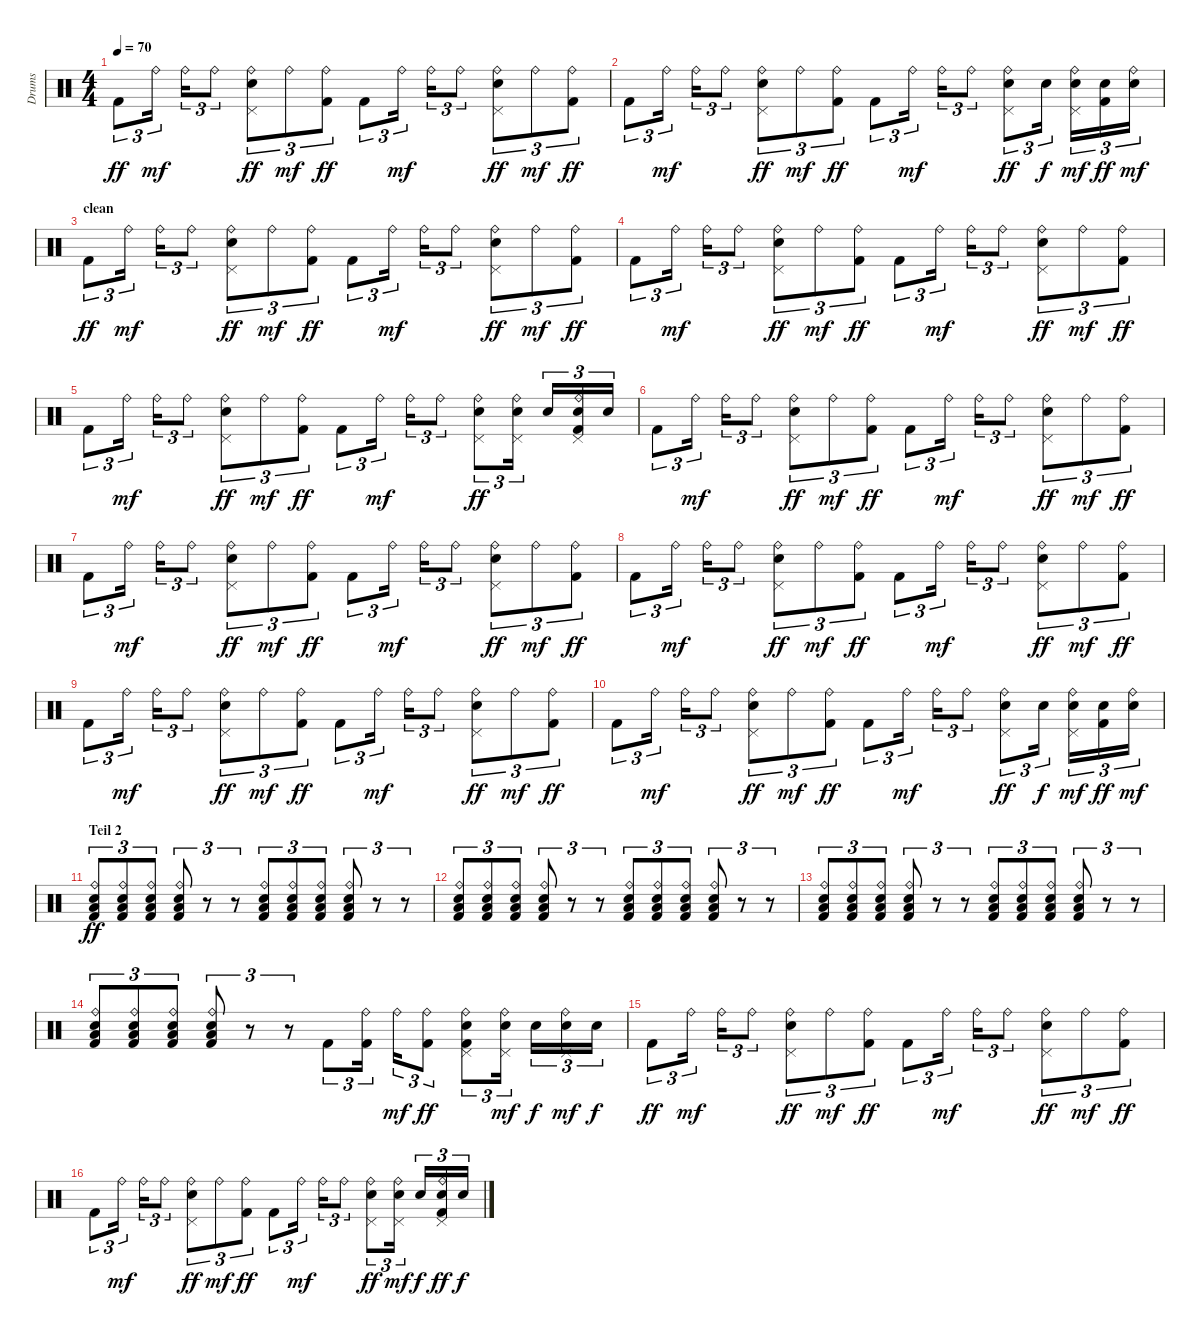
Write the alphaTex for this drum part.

\track ("Drums" "Drums") {instrument percussion}
\staff {score}
\articulation defaults
\ts (4 4)
\tempo 70
\clef neutral
\ks c "Kick (hit) 2".8{tu (3 2) dy ff} "Ride (bell)".16{tu (3 2) dy mf} "Ride (bell)".16{tu (3 2)} "Ride (bell)".8{tu (3 2)}
("Ride (bell)" "Pedal Hi-Hat (hit)" "Electric Snare (hit)").8{tu (3 2) dy ff} "Ride (bell)".8{tu (3 2) dy mf} ("Ride (bell)" "Kick (hit) 2").8{tu (3 2) dy ff} "Kick (hit) 2".8{tu (3 2)} "Ride (bell)".16{tu (3 2) dy mf} "Ride (bell)".16{tu (3 2)} "Ride (bell)".8{tu (3 2)} ("Ride (bell)" "Pedal Hi-Hat (hit)" "Electric Snare (hit)").8{tu (3 2) dy ff} "Ride (bell)".8{tu (3 2) dy mf} ("Ride (bell)" "Kick (hit) 2").8{tu (3 2) dy ff} |
"Kick (hit) 2".8{tu (3 2)} "Ride (bell)".16{tu (3 2) dy mf} "Ride (bell)".16{tu (3 2)} "Ride (bell)".8{tu (3 2)} ("Ride (bell)" "Pedal Hi-Hat (hit)" "Electric Snare (hit)").8{tu (3 2) dy ff} "Ride (bell)".8{tu (3 2) dy mf} ("Ride (bell)" "Kick (hit) 2").8{tu (3 2) dy ff} "Kick (hit) 2".8{tu (3 2)} "Ride (bell)".16{tu (3 2) dy mf} "Ride (bell)".16{tu (3 2)} "Ride (bell)".8{tu (3 2)} ("Ride (bell)" "Pedal Hi-Hat (hit)" "Electric Snare (hit)").8{tu (3 2) dy ff} "Electric Snare (hit)".16{tu (3 2) dy f} ("Ride (bell)" "Pedal Hi-Hat (hit)" "Electric Snare (hit)").16{tu (3 2) dy mf} ("Electric Snare (hit)" "Kick (hit) 2").16{tu (3 2) dy ff} ("Ride (bell)" "Electric Snare (hit)").16{tu (3 2) dy mf} |
\section ("" "clean")
"Kick (hit) 2".8{tu (3 2) dy ff} "Ride (bell)".16{tu (3 2) dy mf} "Ride (bell)".16{tu (3 2)} "Ride (bell)".8{tu (3 2)} ("Ride (bell)" "Pedal Hi-Hat (hit)" "Electric Snare (hit)").8{tu (3 2) dy ff} "Ride (bell)".8{tu (3 2) dy mf} ("Ride (bell)" "Kick (hit) 2").8{tu (3 2) dy ff} "Kick (hit) 2".8{tu (3 2)} "Ride (bell)".16{tu (3 2) dy mf} "Ride (bell)".16{tu (3 2)} "Ride (bell)".8{tu (3 2)} ("Ride (bell)" "Pedal Hi-Hat (hit)" "Electric Snare (hit)").8{tu (3 2) dy ff} "Ride (bell)".8{tu (3 2) dy mf} ("Ride (bell)" "Kick (hit) 2").8{tu (3 2) dy ff} |
"Kick (hit) 2".8{tu (3 2)} "Ride (bell)".16{tu (3 2) dy mf} "Ride (bell)".16{tu (3 2)} "Ride (bell)".8{tu (3 2)} ("Ride (bell)" "Pedal Hi-Hat (hit)" "Electric Snare (hit)").8{tu (3 2) dy ff} "Ride (bell)".8{tu (3 2) dy mf} ("Ride (bell)" "Kick (hit) 2").8{tu (3 2) dy ff} "Kick (hit) 2".8{tu (3 2)} "Ride (bell)".16{tu (3 2) dy mf} "Ride (bell)".16{tu (3 2)} "Ride (bell)".8{tu (3 2)} ("Ride (bell)" "Pedal Hi-Hat (hit)" "Electric Snare (hit)").8{tu (3 2) dy ff} "Ride (bell)".8{tu (3 2) dy mf} ("Ride (bell)" "Kick (hit) 2").8{tu (3 2) dy ff} |
"Kick (hit) 2".8{tu (3 2)} "Ride (bell)".16{tu (3 2) dy mf} "Ride (bell)".16{tu (3 2)} "Ride (bell)".8{tu (3 2)} ("Ride (bell)" "Pedal Hi-Hat (hit)" "Electric Snare (hit)").8{tu (3 2) dy ff} "Ride (bell)".8{tu (3 2) dy mf} ("Ride (bell)" "Kick (hit) 2").8{tu (3 2) dy ff} "Kick (hit) 2".8{tu (3 2)} "Ride (bell)".16{tu (3 2) dy mf} "Ride (bell)".16{tu (3 2)} "Ride (bell)".8{tu (3 2)} ("Ride (bell)" "Pedal Hi-Hat (hit)" "Electric Snare (hit)").8{tu (3 2) dy ff} ("Ride (bell)" "Pedal Hi-Hat (hit)" "Electric Snare (hit)").16{tu (3 2)} "Electric Snare (hit)".16{tu (3 2)} ("Ride (bell)" "Pedal Hi-Hat (hit)" "Electric Snare (hit)" "Kick (hit) 2").16{tu (3 2)} "Electric Snare (hit)".16{tu (3 2)} |
"Kick (hit) 2".8{tu (3 2)} "Ride (bell)".16{tu (3 2) dy mf} "Ride (bell)".16{tu (3 2)} "Ride (bell)".8{tu (3 2)} ("Ride (bell)" "Pedal Hi-Hat (hit)" "Electric Snare (hit)").8{tu (3 2) dy ff} "Ride (bell)".8{tu (3 2) dy mf} ("Ride (bell)" "Kick (hit) 2").8{tu (3 2) dy ff} "Kick (hit) 2".8{tu (3 2)} "Ride (bell)".16{tu (3 2) dy mf} "Ride (bell)".16{tu (3 2)} "Ride (bell)".8{tu (3 2)} ("Ride (bell)" "Pedal Hi-Hat (hit)" "Electric Snare (hit)").8{tu (3 2) dy ff} "Ride (bell)".8{tu (3 2) dy mf} ("Ride (bell)" "Kick (hit) 2").8{tu (3 2) dy ff} |
"Kick (hit) 2".8{tu (3 2)} "Ride (bell)".16{tu (3 2) dy mf} "Ride (bell)".16{tu (3 2)} "Ride (bell)".8{tu (3 2)} ("Ride (bell)" "Pedal Hi-Hat (hit)" "Electric Snare (hit)").8{tu (3 2) dy ff} "Ride (bell)".8{tu (3 2) dy mf} ("Ride (bell)" "Kick (hit) 2").8{tu (3 2) dy ff} "Kick (hit) 2".8{tu (3 2)} "Ride (bell)".16{tu (3 2) dy mf} "Ride (bell)".16{tu (3 2)} "Ride (bell)".8{tu (3 2)} ("Ride (bell)" "Pedal Hi-Hat (hit)" "Electric Snare (hit)").8{tu (3 2) dy ff} "Ride (bell)".8{tu (3 2) dy mf} ("Ride (bell)" "Kick (hit) 2").8{tu (3 2) dy ff} |
"Kick (hit) 2".8{tu (3 2)} "Ride (bell)".16{tu (3 2) dy mf} "Ride (bell)".16{tu (3 2)} "Ride (bell)".8{tu (3 2)} ("Ride (bell)" "Pedal Hi-Hat (hit)" "Electric Snare (hit)").8{tu (3 2) dy ff} "Ride (bell)".8{tu (3 2) dy mf} ("Ride (bell)" "Kick (hit) 2").8{tu (3 2) dy ff} "Kick (hit) 2".8{tu (3 2)} "Ride (bell)".16{tu (3 2) dy mf} "Ride (bell)".16{tu (3 2)} "Ride (bell)".8{tu (3 2)} ("Ride (bell)" "Pedal Hi-Hat (hit)" "Electric Snare (hit)").8{tu (3 2) dy ff} "Ride (bell)".8{tu (3 2) dy mf} ("Ride (bell)" "Kick (hit) 2").8{tu (3 2) dy ff} |
"Kick (hit) 2".8{tu (3 2)} "Ride (bell)".16{tu (3 2) dy mf} "Ride (bell)".16{tu (3 2)} "Ride (bell)".8{tu (3 2)} ("Ride (bell)" "Pedal Hi-Hat (hit)" "Electric Snare (hit)").8{tu (3 2) dy ff} "Ride (bell)".8{tu (3 2) dy mf} ("Ride (bell)" "Kick (hit) 2").8{tu (3 2) dy ff} "Kick (hit) 2".8{tu (3 2)} "Ride (bell)".16{tu (3 2) dy mf} "Ride (bell)".16{tu (3 2)} "Ride (bell)".8{tu (3 2)} ("Ride (bell)" "Pedal Hi-Hat (hit)" "Electric Snare (hit)").8{tu (3 2) dy ff} "Ride (bell)".8{tu (3 2) dy mf} ("Ride (bell)" "Kick (hit) 2").8{tu (3 2) dy ff} |
"Kick (hit) 2".8{tu (3 2)} "Ride (bell)".16{tu (3 2) dy mf} "Ride (bell)".16{tu (3 2)} "Ride (bell)".8{tu (3 2)} ("Ride (bell)" "Pedal Hi-Hat (hit)" "Electric Snare (hit)").8{tu (3 2) dy ff} "Ride (bell)".8{tu (3 2) dy mf} ("Ride (bell)" "Kick (hit) 2").8{tu (3 2) dy ff} "Kick (hit) 2".8{tu (3 2)} "Ride (bell)".16{tu (3 2) dy mf} "Ride (bell)".16{tu (3 2)} "Ride (bell)".8{tu (3 2)} ("Ride (bell)" "Pedal Hi-Hat (hit)" "Electric Snare (hit)").8{tu (3 2) dy ff} "Electric Snare (hit)".16{tu (3 2) dy f} ("Ride (bell)" "Pedal Hi-Hat (hit)" "Electric Snare (hit)").16{tu (3 2) dy mf} ("Electric Snare (hit)" "Kick (hit) 2").16{tu (3 2) dy ff} ("Ride (bell)" "Electric Snare (hit)").16{tu (3 2) dy mf} |
\section ("" "Teil 2")
("Ride (bell)" "Electric Snare (hit)" "Low Floor Tom (hit)" "Kick (hit) 2").8{tu (3 2) dy ff} ("Ride (bell)" "Electric Snare (hit)" "Low Floor Tom (hit)" "Kick (hit) 2").8{tu (3 2)} ("Ride (bell)" "Electric Snare (hit)" "Low Floor Tom (hit)" "Kick (hit) 2").8{tu (3 2)} ("Ride (bell)" "Electric Snare (hit)" "Low Floor Tom (hit)" "Kick (hit) 2").8{tu (3 2)} r.8{tu (3 2)} r.8{tu (3 2)} ("Ride (bell)" "Electric Snare (hit)" "Low Floor Tom (hit)" "Kick (hit) 2").8{tu (3 2)} ("Ride (bell)" "Electric Snare (hit)" "Low Floor Tom (hit)" "Kick (hit) 2").8{tu (3 2)} ("Ride (bell)" "Electric Snare (hit)" "Low Floor Tom (hit)" "Kick (hit) 2").8{tu (3 2)} ("Ride (bell)" "Electric Snare (hit)" "Low Floor Tom (hit)" "Kick (hit) 2").8{tu (3 2)} r.8{tu (3 2)} r.8{tu (3 2)} |
("Ride (bell)" "Electric Snare (hit)" "Low Floor Tom (hit)" "Kick (hit) 2").8{tu (3 2)} ("Ride (bell)" "Electric Snare (hit)" "Low Floor Tom (hit)" "Kick (hit) 2").8{tu (3 2)} ("Ride (bell)" "Electric Snare (hit)" "Low Floor Tom (hit)" "Kick (hit) 2").8{tu (3 2)} ("Ride (bell)" "Electric Snare (hit)" "Low Floor Tom (hit)" "Kick (hit) 2").8{tu (3 2)} r.8{tu (3 2)} r.8{tu (3 2)} ("Ride (bell)" "Electric Snare (hit)" "Low Floor Tom (hit)" "Kick (hit) 2").8{tu (3 2)} ("Ride (bell)" "Electric Snare (hit)" "Low Floor Tom (hit)" "Kick (hit) 2").8{tu (3 2)} ("Ride (bell)" "Electric Snare (hit)" "Low Floor Tom (hit)" "Kick (hit) 2").8{tu (3 2)} ("Ride (bell)" "Electric Snare (hit)" "Low Floor Tom (hit)" "Kick (hit) 2").8{tu (3 2)} r.8{tu (3 2)} r.8{tu (3 2)} |
("Ride (bell)" "Electric Snare (hit)" "Low Floor Tom (hit)" "Kick (hit) 2").8{tu (3 2)} ("Ride (bell)" "Electric Snare (hit)" "Low Floor Tom (hit)" "Kick (hit) 2").8{tu (3 2)} ("Ride (bell)" "Electric Snare (hit)" "Low Floor Tom (hit)" "Kick (hit) 2").8{tu (3 2)} ("Ride (bell)" "Electric Snare (hit)" "Low Floor Tom (hit)" "Kick (hit) 2").8{tu (3 2)} r.8{tu (3 2)} r.8{tu (3 2)} ("Ride (bell)" "Electric Snare (hit)" "Low Floor Tom (hit)" "Kick (hit) 2").8{tu (3 2)} ("Ride (bell)" "Electric Snare (hit)" "Low Floor Tom (hit)" "Kick (hit) 2").8{tu (3 2)} ("Ride (bell)" "Electric Snare (hit)" "Low Floor Tom (hit)" "Kick (hit) 2").8{tu (3 2)} ("Ride (bell)" "Electric Snare (hit)" "Low Floor Tom (hit)" "Kick (hit) 2").8{tu (3 2)} r.8{tu (3 2)} r.8{tu (3 2)} |
("Ride (bell)" "Electric Snare (hit)" "Low Floor Tom (hit)" "Kick (hit) 2").8{tu (3 2)} ("Ride (bell)" "Electric Snare (hit)" "Low Floor Tom (hit)" "Kick (hit) 2").8{tu (3 2)} ("Ride (bell)" "Electric Snare (hit)" "Low Floor Tom (hit)" "Kick (hit) 2").8{tu (3 2)} ("Ride (bell)" "Electric Snare (hit)" "Low Floor Tom (hit)" "Kick (hit) 2").8{tu (3 2)} r.8{tu (3 2)} r.8{tu (3 2)} "Kick (hit) 2".8{tu (3 2)} ("Ride (bell)" "Kick (hit) 2").16{tu (3 2)} "Ride (bell)".16{tu (3 2) dy mf} ("Ride (bell)" "Kick (hit) 2").8{tu (3 2) dy ff} ("Ride (bell)" "Pedal Hi-Hat (hit)" "Electric Snare (hit)" "Kick (hit) 2").8{tu (3 2)} ("Ride (bell)" "Pedal Hi-Hat (hit)" "Electric Snare (hit)").16{tu (3 2) dy mf} "Electric Snare (hit)".16{tu (3 2) dy f} ("Ride (bell)" "Pedal Hi-Hat (hit)" "Electric Snare (hit)").16{tu (3 2) dy mf} "Electric Snare (hit)".16{tu (3 2) dy f} |
"Kick (hit) 2".8{tu (3 2) dy ff} "Ride (bell)".16{tu (3 2) dy mf} "Ride (bell)".16{tu (3 2)} "Ride (bell)".8{tu (3 2)} ("Ride (bell)" "Pedal Hi-Hat (hit)" "Electric Snare (hit)").8{tu (3 2) dy ff} "Ride (bell)".8{tu (3 2) dy mf} ("Ride (bell)" "Kick (hit) 2").8{tu (3 2) dy ff} "Kick (hit) 2".8{tu (3 2)} "Ride (bell)".16{tu (3 2) dy mf} "Ride (bell)".16{tu (3 2)} "Ride (bell)".8{tu (3 2)} ("Ride (bell)" "Pedal Hi-Hat (hit)" "Electric Snare (hit)").8{tu (3 2) dy ff} "Ride (bell)".8{tu (3 2) dy mf} ("Ride (bell)" "Kick (hit) 2").8{tu (3 2) dy ff} |
"Kick (hit) 2".8{tu (3 2)} "Ride (bell)".16{tu (3 2) dy mf} "Ride (bell)".16{tu (3 2)} "Ride (bell)".8{tu (3 2)} ("Ride (bell)" "Pedal Hi-Hat (hit)" "Electric Snare (hit)").8{tu (3 2) dy ff} "Ride (bell)".8{tu (3 2) dy mf} ("Ride (bell)" "Kick (hit) 2").8{tu (3 2) dy ff} "Kick (hit) 2".8{tu (3 2)} "Ride (bell)".16{tu (3 2) dy mf} "Ride (bell)".16{tu (3 2)} "Ride (bell)".8{tu (3 2)} ("Ride (bell)" "Pedal Hi-Hat (hit)" "Electric Snare (hit)").8{tu (3 2) dy ff} ("Ride (bell)" "Pedal Hi-Hat (hit)" "Electric Snare (hit)").16{tu (3 2) dy mf} "Electric Snare (hit)".16{tu (3 2) dy f} ("Ride (bell)" "Pedal Hi-Hat (hit)" "Electric Snare (hit)" "Kick (hit) 2").16{tu (3 2) dy ff} "Electric Snare (hit)".16{tu (3 2) dy f}
